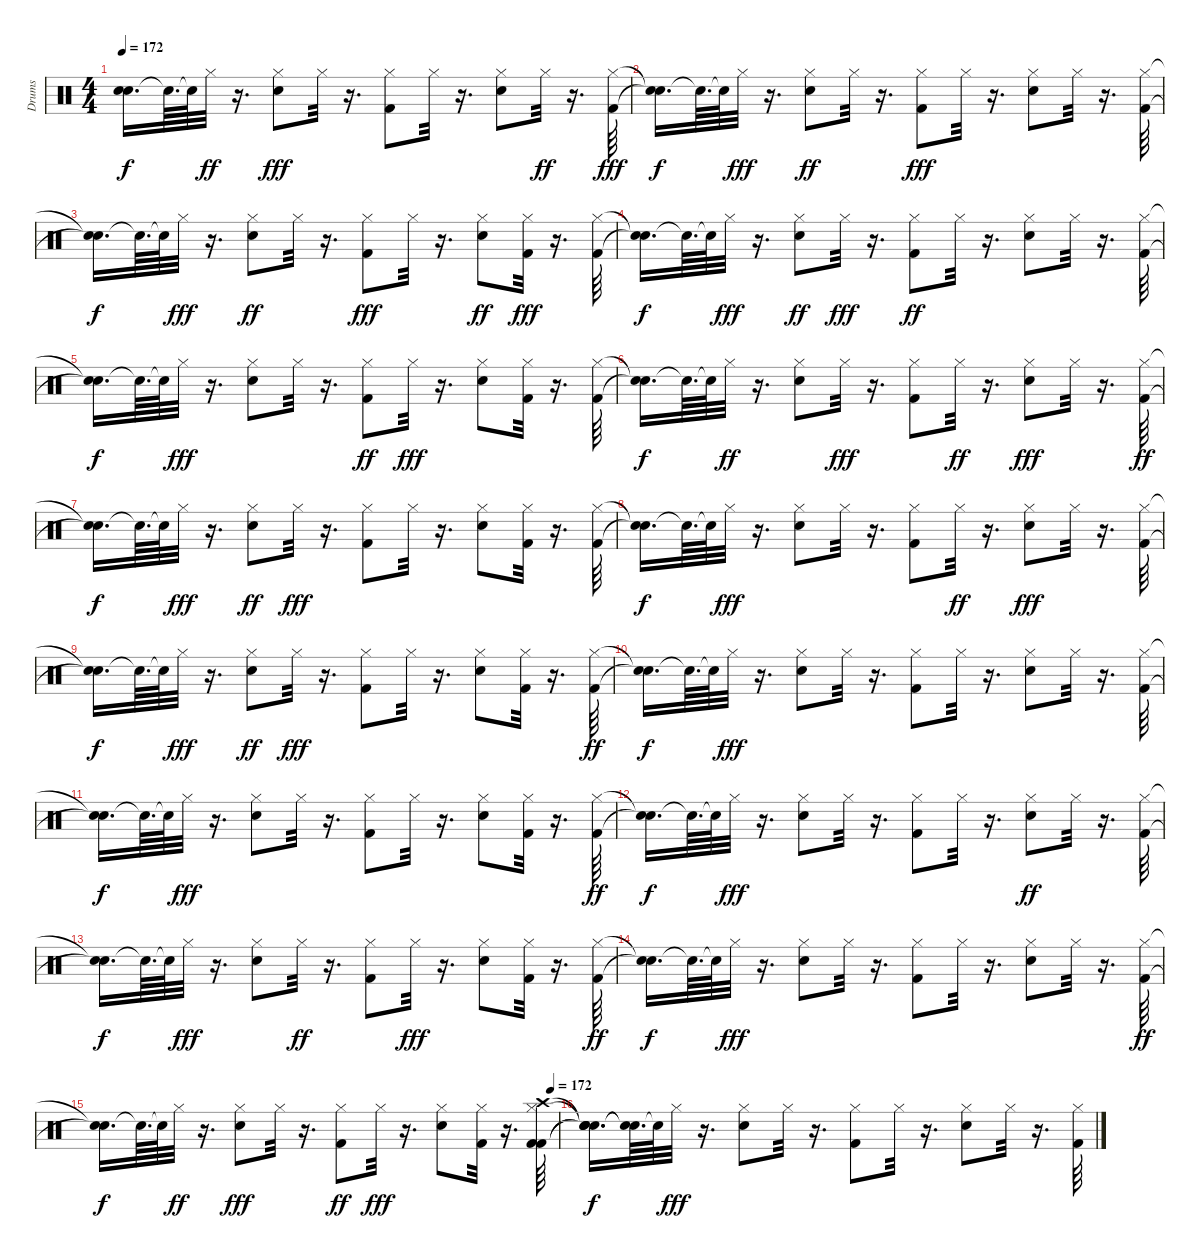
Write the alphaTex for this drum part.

\track ("Drums" "Drums") {instrument percussion}
\staff {score}
\articulation defaults
\ts (4 4)
\tempo 172
\clef neutral
\ks c
("Snare (hit)"{t} "Snare (hit)"{t}).16{d dy f} "Snare (hit)"{t}.64{d} "Snare (hit)"{t}.64 "Hi-Hat (closed)".32{dy ff} r.16{d} ("Electric Snare (hit)" "Hi-Hat (closed)").8{dy fff} "Hi-Hat (closed)".32 r.16{d} ("Hi-Hat (closed)" "Kick (hit) 2").8 "Hi-Hat (closed)".32 r.16{d} ("Electric Snare (hit)" "Hi-Hat (closed)").8 "Hi-Hat (closed)".32{dy ff} r.16{d} ("Hi-Hat (closed)" "Kick (hit) 2").64{dy fff} |
("Snare (hit)"{t} "Snare (hit)"{t}).16{d dy f} "Snare (hit)"{t}.64{d} "Snare (hit)"{t}.64 "Hi-Hat (closed)".32{dy fff} r.16{d} ("Hi-Hat (closed)" "Electric Snare (hit)").8{dy ff} "Hi-Hat (closed)".32 r.16{d} ("Kick (hit) 2" "Hi-Hat (closed)").8{dy fff} "Hi-Hat (closed)".32 r.16{d} ("Electric Snare (hit)" "Hi-Hat (closed)").8 "Hi-Hat (closed)".32 r.16{d} ("Kick (hit) 2" "Hi-Hat (closed)").64 |
("Snare (hit)"{t} "Snare (hit)"{t}).16{d dy f} "Snare (hit)"{t}.64{d} "Snare (hit)"{t}.64 "Hi-Hat (closed)".32{dy fff} r.16{d} ("Hi-Hat (closed)" "Electric Snare (hit)").8{dy ff} "Hi-Hat (closed)".32 r.16{d} ("Kick (hit) 2" "Hi-Hat (closed)").8{dy fff} "Hi-Hat (closed)".32 r.16{d} ("Hi-Hat (closed)" "Electric Snare (hit)").8{dy ff} ("Hi-Hat (closed)" "Kick (hit) 2").32{dy fff} r.16{d} ("Hi-Hat (closed)" "Kick (hit) 2").64 |
("Snare (hit)"{t} "Snare (hit)"{t}).16{d dy f} "Snare (hit)"{t}.64{d} "Snare (hit)"{t}.64 "Hi-Hat (closed)".32{dy fff} r.16{d} ("Hi-Hat (closed)" "Electric Snare (hit)").8{dy ff} "Hi-Hat (closed)".32{dy fff} r.16{d} ("Hi-Hat (closed)" "Kick (hit) 2").8{dy ff} "Hi-Hat (closed)".32 r.16{d} ("Hi-Hat (closed)" "Electric Snare (hit)").8 "Hi-Hat (closed)".32 r.16{d} ("Hi-Hat (closed)" "Kick (hit) 2").64 |
("Snare (hit)"{t} "Snare (hit)"{t}).16{d dy f} "Snare (hit)"{t}.64{d} "Snare (hit)"{t}.64 "Hi-Hat (closed)".32{dy fff} r.16{d} ("Electric Snare (hit)" "Hi-Hat (closed)").8 "Hi-Hat (closed)".32 r.16{d} ("Kick (hit) 2" "Hi-Hat (closed)").8{dy ff} "Hi-Hat (closed)".32{dy fff} r.16{d} ("Electric Snare (hit)" "Hi-Hat (closed)").8 ("Kick (hit) 2" "Hi-Hat (closed)").32 r.16{d} ("Hi-Hat (closed)" "Kick (hit) 2").64 |
("Snare (hit)"{t} "Snare (hit)"{t}).16{d dy f} "Snare (hit)"{t}.64{d} "Snare (hit)"{t}.64 "Hi-Hat (closed)".32{dy ff} r.16{d} ("Hi-Hat (closed)" "Electric Snare (hit)").8 "Hi-Hat (closed)".32{dy fff} r.16{d} ("Kick (hit) 2" "Hi-Hat (closed)").8 "Hi-Hat (closed)".32{dy ff} r.16{d} ("Electric Snare (hit)" "Hi-Hat (closed)").8{dy fff} "Hi-Hat (closed)".32 r.16{d} ("Hi-Hat (closed)" "Kick (hit) 2").64{dy ff} |
("Snare (hit)"{t} "Snare (hit)"{t}).16{d dy f} "Snare (hit)"{t}.64{d} "Snare (hit)"{t}.64 "Hi-Hat (closed)".32{dy fff} r.16{d} ("Hi-Hat (closed)" "Electric Snare (hit)").8{dy ff} "Hi-Hat (closed)".32{dy fff} r.16{d} ("Kick (hit) 2" "Hi-Hat (closed)").8 "Hi-Hat (closed)".32 r.16{d} ("Electric Snare (hit)" "Hi-Hat (closed)").8 ("Hi-Hat (closed)" "Kick (hit) 2").32 r.16{d} ("Kick (hit) 2" "Hi-Hat (closed)").64 |
("Snare (hit)"{t} "Snare (hit)"{t}).16{d dy f} "Snare (hit)"{t}.64{d} "Snare (hit)"{t}.64 "Hi-Hat (closed)".32{dy fff} r.16{d} ("Electric Snare (hit)" "Hi-Hat (closed)").8 "Hi-Hat (closed)".32 r.16{d} ("Kick (hit) 2" "Hi-Hat (closed)").8 "Hi-Hat (closed)".32{dy ff} r.16{d} ("Electric Snare (hit)" "Hi-Hat (closed)").8{dy fff} "Hi-Hat (closed)".32 r.16{d} ("Kick (hit) 2" "Hi-Hat (closed)").64 |
("Snare (hit)"{t} "Snare (hit)"{t}).16{d dy f} "Snare (hit)"{t}.64{d} "Snare (hit)"{t}.64 "Hi-Hat (closed)".32{dy fff} r.16{d} ("Hi-Hat (closed)" "Electric Snare (hit)").8{dy ff} "Hi-Hat (closed)".32{dy fff} r.16{d} ("Hi-Hat (closed)" "Kick (hit) 2").8 "Hi-Hat (closed)".32 r.16{d} ("Hi-Hat (closed)" "Electric Snare (hit)").8 ("Hi-Hat (closed)" "Kick (hit) 2").32 r.16{d} ("Kick (hit) 2" "Hi-Hat (closed)").64{dy ff} |
("Snare (hit)"{t} "Snare (hit)"{t}).16{d dy f} "Snare (hit)"{t}.64{d} "Snare (hit)"{t}.64 "Hi-Hat (closed)".32{dy fff} r.16{d} ("Electric Snare (hit)" "Hi-Hat (closed)").8 "Hi-Hat (closed)".32 r.16{d} ("Kick (hit) 2" "Hi-Hat (closed)").8 "Hi-Hat (closed)".32 r.16{d} ("Electric Snare (hit)" "Hi-Hat (closed)").8 "Hi-Hat (closed)".32 r.16{d} ("Hi-Hat (closed)" "Kick (hit) 2").64 |
("Snare (hit)"{t} "Snare (hit)"{t}).16{d dy f} "Snare (hit)"{t}.64{d} "Snare (hit)"{t}.64 "Hi-Hat (closed)".32{dy fff} r.16{d} ("Electric Snare (hit)" "Hi-Hat (closed)").8 "Hi-Hat (closed)".32 r.16{d} ("Kick (hit) 2" "Hi-Hat (closed)").8 "Hi-Hat (closed)".32 r.16{d} ("Electric Snare (hit)" "Hi-Hat (closed)").8 ("Hi-Hat (closed)" "Kick (hit) 2").32 r.16{d} ("Kick (hit) 2" "Hi-Hat (closed)").64{dy ff} |
("Snare (hit)"{t} "Snare (hit)"{t}).16{d dy f} "Snare (hit)"{t}.64{d} "Snare (hit)"{t}.64 "Hi-Hat (closed)".32{dy fff} r.16{d} ("Electric Snare (hit)" "Hi-Hat (closed)").8 "Hi-Hat (closed)".32 r.16{d} ("Hi-Hat (closed)" "Kick (hit) 2").8 "Hi-Hat (closed)".32 r.16{d} ("Electric Snare (hit)" "Hi-Hat (closed)").8{dy ff} "Hi-Hat (closed)".32 r.16{d} ("Hi-Hat (closed)" "Kick (hit) 2").64 |
("Snare (hit)"{t} "Snare (hit)"{t}).16{d dy f} "Snare (hit)"{t}.64{d} "Snare (hit)"{t}.64 "Hi-Hat (closed)".32{dy fff} r.16{d} ("Electric Snare (hit)" "Hi-Hat (closed)").8 "Hi-Hat (closed)".32{dy ff} r.16{d} ("Kick (hit) 2" "Hi-Hat (closed)").8 "Hi-Hat (closed)".32{dy fff} r.16{d} ("Electric Snare (hit)" "Hi-Hat (closed)").8 ("Kick (hit) 2" "Hi-Hat (closed)").32 r.16{d} ("Hi-Hat (closed)" "Kick (hit) 2").64{dy ff} |
("Snare (hit)"{t} "Snare (hit)"{t}).16{d dy f} "Snare (hit)"{t}.64{d} "Snare (hit)"{t}.64 "Hi-Hat (closed)".32{dy fff} r.16{d} ("Electric Snare (hit)" "Hi-Hat (closed)").8 "Hi-Hat (closed)".32 r.16{d} ("Hi-Hat (closed)" "Kick (hit) 2").8 "Hi-Hat (closed)".32 r.16{d} ("Electric Snare (hit)" "Hi-Hat (closed)").8 "Hi-Hat (closed)".32 r.16{d} ("Hi-Hat (closed)" "Kick (hit) 2").64{dy ff} |
\tempo (172 0.984375)
("Snare (hit)"{t} "Snare (hit)"{t}).16{d dy f} "Snare (hit)"{t}.64{d} "Snare (hit)"{t}.64 "Hi-Hat (closed)".32{dy ff} r.16{d} ("Electric Snare (hit)" "Hi-Hat (closed)").8{dy fff} "Hi-Hat (closed)".32 r.16{d} ("Kick (hit) 2" "Hi-Hat (closed)").8{dy ff} "Hi-Hat (closed)".32{dy fff} r.16{d} ("Hi-Hat (closed)" "Electric Snare (hit)").8 ("Kick (hit) 2" "Hi-Hat (closed)").32 r.16{d} ("Hi-Hat (closed)" "Kick (hit) 2" "Kick (hit) 2" "Crash high (hit)").64 |
("Snare (hit)"{t} "Snare (hit)"{t} "Snare (hit)"{t} "Snare (hit)"{t}).16{d dy f} ("Snare (hit)"{t} "Snare (hit)"{t}).64{d} "Snare (hit)"{t}.64 "Hi-Hat (closed)".32{dy fff} r.16{d} ("Hi-Hat (closed)" "Electric Snare (hit)").8 "Hi-Hat (closed)".32 r.16{d} ("Hi-Hat (closed)" "Kick (hit) 2").8 "Hi-Hat (closed)".32 r.16{d} ("Electric Snare (hit)" "Hi-Hat (closed)").8 "Hi-Hat (closed)".32 r.16{d} ("Kick (hit) 2" "Hi-Hat (closed)").64
